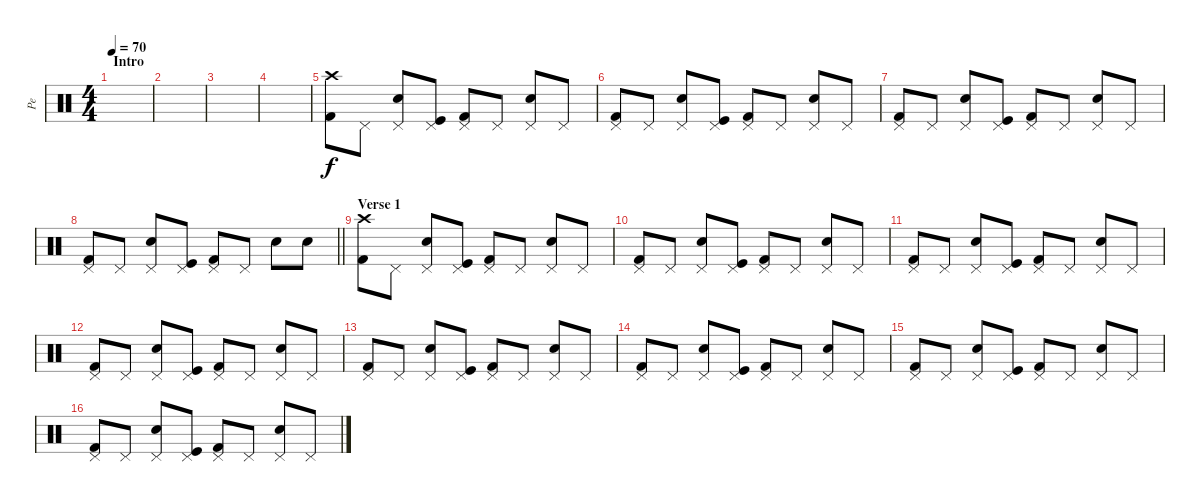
\track ("Pe" "Pe") {instrument percussion}
\staff {score}
\articulation defaults
\ts (4 4)
\section ("" "Intro")
\tempo 70
\clef neutral
\ks c
|
|
|
|
("Kick (hit) 2" "Crash high (hit)").8{volume 13} "Pedal Hi-Hat (hit)".8 ("Electric Snare (hit)" "Pedal Hi-Hat (hit)").8 ("Kick (hit)" "Pedal Hi-Hat (hit)").8 ("Kick (hit) 2" "Pedal Hi-Hat (hit)").8 "Pedal Hi-Hat (hit)".8 ("Electric Snare (hit)" "Pedal Hi-Hat (hit)").8 "Pedal Hi-Hat (hit)".8 |
("Kick (hit) 2" "Pedal Hi-Hat (hit)").8 "Pedal Hi-Hat (hit)".8 ("Electric Snare (hit)" "Pedal Hi-Hat (hit)").8 ("Kick (hit)" "Pedal Hi-Hat (hit)").8 ("Kick (hit) 2" "Pedal Hi-Hat (hit)").8 "Pedal Hi-Hat (hit)".8 ("Electric Snare (hit)" "Pedal Hi-Hat (hit)").8 "Pedal Hi-Hat (hit)".8 |
("Kick (hit) 2" "Pedal Hi-Hat (hit)").8 "Pedal Hi-Hat (hit)".8 ("Electric Snare (hit)" "Pedal Hi-Hat (hit)").8 ("Kick (hit)" "Pedal Hi-Hat (hit)").8 ("Kick (hit) 2" "Pedal Hi-Hat (hit)").8 "Pedal Hi-Hat (hit)".8 ("Electric Snare (hit)" "Pedal Hi-Hat (hit)").8 "Pedal Hi-Hat (hit)".8 |
\barLineRight lightlight
("Kick (hit) 2" "Pedal Hi-Hat (hit)").8 "Pedal Hi-Hat (hit)".8 ("Electric Snare (hit)" "Pedal Hi-Hat (hit)").8 ("Kick (hit)" "Pedal Hi-Hat (hit)").8 ("Kick (hit) 2" "Pedal Hi-Hat (hit)").8 "Pedal Hi-Hat (hit)".8 "Electric Snare (hit)".8 "Electric Snare (hit)".8 |
\section ("" "Verse 1")
("Kick (hit) 2" "Crash high (hit)").8 "Pedal Hi-Hat (hit)".8 ("Electric Snare (hit)" "Pedal Hi-Hat (hit)").8 ("Kick (hit)" "Pedal Hi-Hat (hit)").8 ("Kick (hit) 2" "Pedal Hi-Hat (hit)").8 "Pedal Hi-Hat (hit)".8 ("Electric Snare (hit)" "Pedal Hi-Hat (hit)").8 "Pedal Hi-Hat (hit)".8 |
("Kick (hit) 2" "Pedal Hi-Hat (hit)").8 "Pedal Hi-Hat (hit)".8 ("Electric Snare (hit)" "Pedal Hi-Hat (hit)").8 ("Kick (hit)" "Pedal Hi-Hat (hit)").8 ("Kick (hit) 2" "Pedal Hi-Hat (hit)").8 "Pedal Hi-Hat (hit)".8 ("Electric Snare (hit)" "Pedal Hi-Hat (hit)").8 "Pedal Hi-Hat (hit)".8 |
("Kick (hit) 2" "Pedal Hi-Hat (hit)").8 "Pedal Hi-Hat (hit)".8 ("Electric Snare (hit)" "Pedal Hi-Hat (hit)").8 ("Kick (hit)" "Pedal Hi-Hat (hit)").8 ("Kick (hit) 2" "Pedal Hi-Hat (hit)").8 "Pedal Hi-Hat (hit)".8 ("Electric Snare (hit)" "Pedal Hi-Hat (hit)").8 "Pedal Hi-Hat (hit)".8 |
("Kick (hit) 2" "Pedal Hi-Hat (hit)").8 "Pedal Hi-Hat (hit)".8 ("Electric Snare (hit)" "Pedal Hi-Hat (hit)").8 ("Kick (hit)" "Pedal Hi-Hat (hit)").8 ("Kick (hit) 2" "Pedal Hi-Hat (hit)").8 "Pedal Hi-Hat (hit)".8 ("Electric Snare (hit)" "Pedal Hi-Hat (hit)").8 "Pedal Hi-Hat (hit)".8 |
("Kick (hit) 2" "Pedal Hi-Hat (hit)").8 "Pedal Hi-Hat (hit)".8 ("Electric Snare (hit)" "Pedal Hi-Hat (hit)").8 ("Kick (hit)" "Pedal Hi-Hat (hit)").8 ("Kick (hit) 2" "Pedal Hi-Hat (hit)").8 "Pedal Hi-Hat (hit)".8 ("Electric Snare (hit)" "Pedal Hi-Hat (hit)").8 "Pedal Hi-Hat (hit)".8 |
("Kick (hit) 2" "Pedal Hi-Hat (hit)").8 "Pedal Hi-Hat (hit)".8 ("Electric Snare (hit)" "Pedal Hi-Hat (hit)").8 ("Kick (hit)" "Pedal Hi-Hat (hit)").8 ("Kick (hit) 2" "Pedal Hi-Hat (hit)").8 "Pedal Hi-Hat (hit)".8 ("Electric Snare (hit)" "Pedal Hi-Hat (hit)").8 "Pedal Hi-Hat (hit)".8 |
("Kick (hit) 2" "Pedal Hi-Hat (hit)").8 "Pedal Hi-Hat (hit)".8 ("Electric Snare (hit)" "Pedal Hi-Hat (hit)").8 ("Kick (hit)" "Pedal Hi-Hat (hit)").8 ("Kick (hit) 2" "Pedal Hi-Hat (hit)").8 "Pedal Hi-Hat (hit)".8 ("Electric Snare (hit)" "Pedal Hi-Hat (hit)").8 "Pedal Hi-Hat (hit)".8 |
("Kick (hit) 2" "Pedal Hi-Hat (hit)").8 "Pedal Hi-Hat (hit)".8 ("Electric Snare (hit)" "Pedal Hi-Hat (hit)").8 ("Kick (hit)" "Pedal Hi-Hat (hit)").8 ("Kick (hit) 2" "Pedal Hi-Hat (hit)").8 "Pedal Hi-Hat (hit)".8 ("Electric Snare (hit)" "Pedal Hi-Hat (hit)").8 "Pedal Hi-Hat (hit)".8
